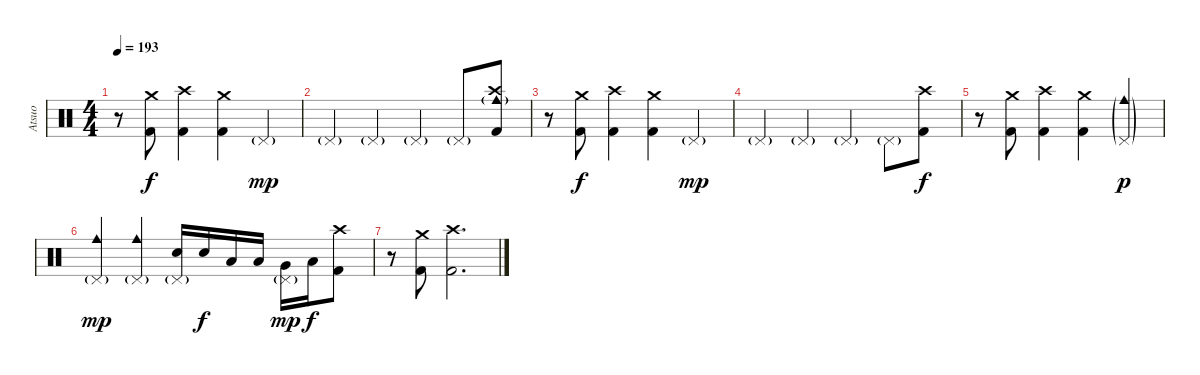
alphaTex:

\track ("Atsuo" "Atsuo") {instrument percussion}
\staff {score}
\articulation defaults
\ts (4 4)
\section ("" "")
\tempo 193
\clef neutral
\ks c
r.8{dy f} ("Crash medium (hit)" "Kick (hit) 2").8 ("Crash high (hit)" "Kick (hit) 2").4 ("Crash medium (hit)" "Kick (hit) 2").4 "Pedal Hi-Hat (hit)"{g}.4{dy mp} |
"Pedal Hi-Hat (hit)"{g}.4 "Pedal Hi-Hat (hit)"{g}.4 "Pedal Hi-Hat (hit)"{g}.4 "Pedal Hi-Hat (hit)"{g}.8 ("Crash high (hit)" "Cowbell medium (hit)"{g} "Kick (hit) 2").8 |
r.8 ("Crash medium (hit)" "Kick (hit) 2").8{dy f} ("Crash high (hit)" "Kick (hit) 2").4 ("Crash medium (hit)" "Kick (hit) 2").4 "Pedal Hi-Hat (hit)"{g}.4{dy mp} |
"Pedal Hi-Hat (hit)"{g}.4 "Pedal Hi-Hat (hit)"{g}.4 "Pedal Hi-Hat (hit)"{g}.4 "Pedal Hi-Hat (hit)"{g}.8 ("Crash high (hit)" "Kick (hit) 2").8{dy f} |
r.8 ("Crash medium (hit)" "Kick (hit) 2").8 ("Crash high (hit)" "Kick (hit) 2").4 ("Crash medium (hit)" "Kick (hit) 2").4 ("Pedal Hi-Hat (hit)"{g} "Cowbell medium (hit)"{g}).4{dy p} |
("Pedal Hi-Hat (hit)"{g} "Cowbell medium (hit)").4{dy mp} ("Pedal Hi-Hat (hit)"{g} "Cowbell medium (hit)").4 ("Pedal Hi-Hat (hit)"{g} "Electric Snare (hit)").16 "Electric Snare (hit)".16{dy f} "Low Tom (hit)".16 "Low Tom (hit)".16 ("Pedal Hi-Hat (hit)"{g} "Very Low Tom (hit)").16{dy mp} "Low Floor Tom (hit)".16{dy f} ("Crash high (hit)" "Kick (hit) 2").8 |
r.8 ("Crash medium (hit)" "Kick (hit) 2").8 ("Crash high (hit)" "Kick (hit) 2").2{d}
